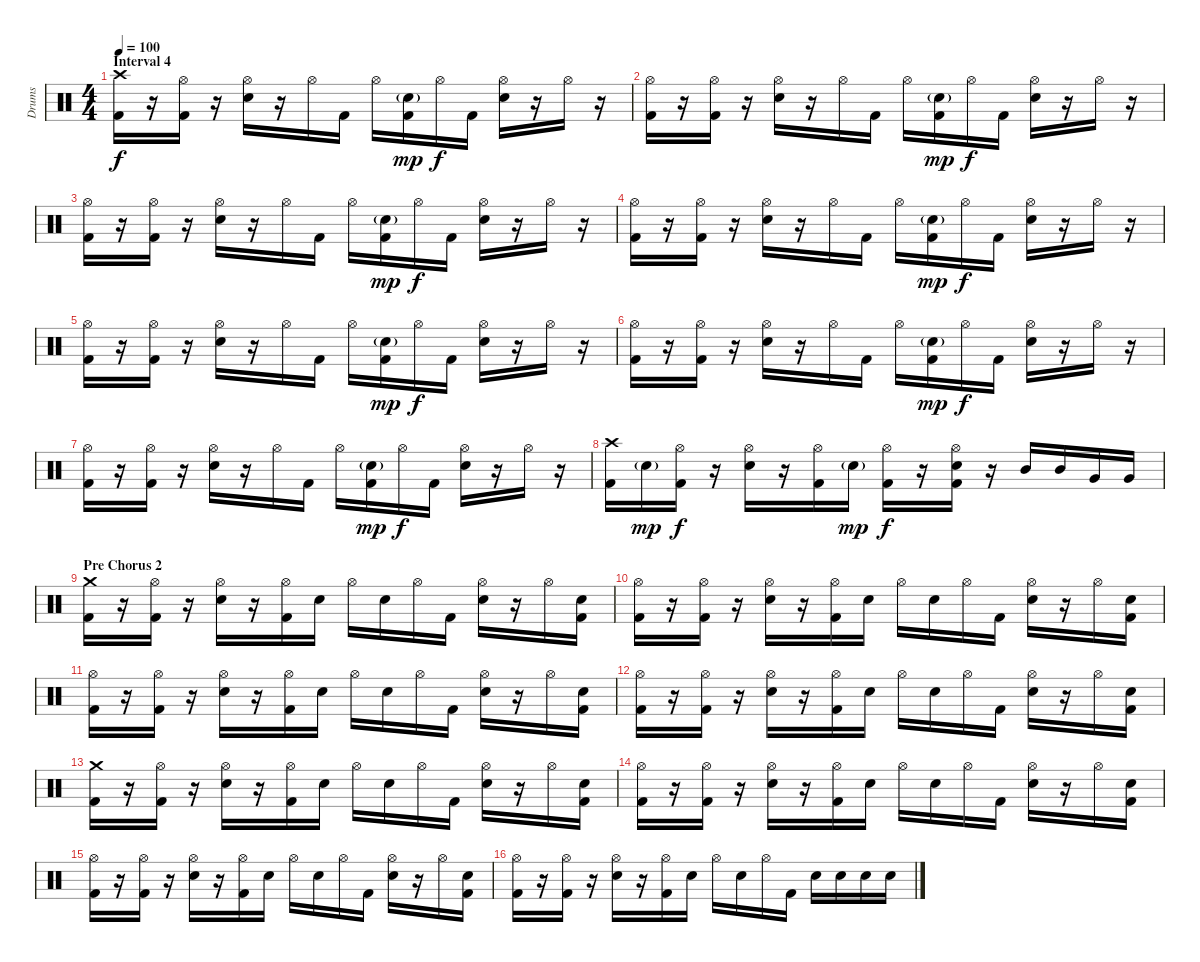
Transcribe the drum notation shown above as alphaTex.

\track ("Drums" "Drums") {instrument percussion}
\staff {score}
\articulation defaults
\ts (4 4)
\section ("" "Interval 4")
\tempo 100
\clef neutral
\ks c
("Crash high (hit)" "Kick (hit) 2").16{dy f} r.16 ("Hi-Hat (open)" "Kick (hit) 2").16 r.16 ("Hi-Hat (open)" "Snare (hit) 2").16 r.16 "Hi-Hat (open)".16 "Kick (hit) 2".16 "Hi-Hat (open)".16 ("Snare (hit) 2"{g} "Kick (hit) 2").16{dy mp} "Hi-Hat (open)".16{dy f} "Kick (hit) 2".16 ("Hi-Hat (open)" "Snare (hit) 2").16 r.16 "Hi-Hat (open)".16 r.16 |
("Hi-Hat (open)" "Kick (hit) 2").16 r.16 ("Hi-Hat (open)" "Kick (hit) 2").16 r.16 ("Hi-Hat (open)" "Snare (hit) 2").16 r.16 "Hi-Hat (open)".16 "Kick (hit) 2".16 "Hi-Hat (open)".16 ("Snare (hit) 2"{g} "Kick (hit) 2").16{dy mp} "Hi-Hat (open)".16{dy f} "Kick (hit) 2".16 ("Hi-Hat (open)" "Snare (hit) 2").16 r.16 "Hi-Hat (open)".16 r.16 |
("Hi-Hat (open)" "Kick (hit) 2").16 r.16 ("Hi-Hat (open)" "Kick (hit) 2").16 r.16 ("Hi-Hat (open)" "Snare (hit) 2").16 r.16 "Hi-Hat (open)".16 "Kick (hit) 2".16 "Hi-Hat (open)".16 ("Snare (hit) 2"{g} "Kick (hit) 2").16{dy mp} "Hi-Hat (open)".16{dy f} "Kick (hit) 2".16 ("Hi-Hat (open)" "Snare (hit) 2").16 r.16 "Hi-Hat (open)".16 r.16 |
("Hi-Hat (open)" "Kick (hit) 2").16 r.16 ("Hi-Hat (open)" "Kick (hit) 2").16 r.16 ("Hi-Hat (open)" "Snare (hit) 2").16 r.16 "Hi-Hat (open)".16 "Kick (hit) 2".16 "Hi-Hat (open)".16 ("Snare (hit) 2"{g} "Kick (hit) 2").16{dy mp} "Hi-Hat (open)".16{dy f} "Kick (hit) 2".16 ("Hi-Hat (open)" "Snare (hit) 2").16 r.16 "Hi-Hat (open)".16 r.16 |
("Hi-Hat (open)" "Kick (hit) 2").16 r.16 ("Hi-Hat (open)" "Kick (hit) 2").16 r.16 ("Hi-Hat (open)" "Snare (hit) 2").16 r.16 "Hi-Hat (open)".16 "Kick (hit) 2".16 "Hi-Hat (open)".16 ("Snare (hit) 2"{g} "Kick (hit) 2").16{dy mp} "Hi-Hat (open)".16{dy f} "Kick (hit) 2".16 ("Hi-Hat (open)" "Snare (hit) 2").16 r.16 "Hi-Hat (open)".16 r.16 |
("Hi-Hat (open)" "Kick (hit) 2").16 r.16 ("Hi-Hat (open)" "Kick (hit) 2").16 r.16 ("Hi-Hat (open)" "Snare (hit) 2").16 r.16 "Hi-Hat (open)".16 "Kick (hit) 2".16 "Hi-Hat (open)".16 ("Snare (hit) 2"{g} "Kick (hit) 2").16{dy mp} "Hi-Hat (open)".16{dy f} "Kick (hit) 2".16 ("Hi-Hat (open)" "Snare (hit) 2").16 r.16 "Hi-Hat (open)".16 r.16 |
("Hi-Hat (open)" "Kick (hit) 2").16 r.16 ("Hi-Hat (open)" "Kick (hit) 2").16 r.16 ("Hi-Hat (open)" "Snare (hit) 2").16 r.16 "Hi-Hat (open)".16 "Kick (hit) 2".16 "Hi-Hat (open)".16 ("Snare (hit) 2"{g} "Kick (hit) 2").16{dy mp} "Hi-Hat (open)".16{dy f} "Kick (hit) 2".16 ("Hi-Hat (open)" "Snare (hit) 2").16 r.16 "Hi-Hat (open)".16 r.16 |
("Crash high (hit)" "Kick (hit) 2").16 "Snare (hit) 2"{g}.16{dy mp} ("Hi-Hat (open)" "Kick (hit) 2").16{dy f} r.16 ("Hi-Hat (open)" "Snare (hit) 2").16 r.16 ("Hi-Hat (open)" "Kick (hit) 2").16 "Snare (hit) 2"{g}.16{dy mp} ("Hi-Hat (open)" "Kick (hit) 2").16{dy f} r.16 ("Hi-Hat (open)" "Snare (hit) 2" "Kick (hit) 2").16 r.16 "Mid Tom (hit)".16 "Mid Tom (hit)".16 "Very Low Tom (hit)".16 "Very Low Tom (hit)".16 |
\section ("" "Pre Chorus 2")
("Crash medium (hit)" "Kick (hit) 2").16 r.16 ("Hi-Hat (open)" "Kick (hit) 2").16 r.16 ("Hi-Hat (open)" "Snare (hit) 2").16 r.16 ("Hi-Hat (open)" "Kick (hit) 2").16 "Snare (hit) 2".16 "Hi-Hat (open)".16 "Snare (hit) 2".16 "Hi-Hat (open)".16 "Kick (hit) 2".16 ("Hi-Hat (open)" "Snare (hit) 2").16 r.16 "Hi-Hat (open)".16 ("Snare (hit) 2" "Kick (hit) 2").16 |
("Hi-Hat (open)" "Kick (hit) 2").16 r.16 ("Hi-Hat (open)" "Kick (hit) 2").16 r.16 ("Hi-Hat (open)" "Snare (hit) 2").16 r.16 ("Hi-Hat (open)" "Kick (hit) 2").16 "Snare (hit) 2".16 "Hi-Hat (open)".16 "Snare (hit) 2".16 "Hi-Hat (open)".16 "Kick (hit) 2".16 ("Hi-Hat (open)" "Snare (hit) 2").16 r.16 "Hi-Hat (open)".16 ("Snare (hit) 2" "Kick (hit) 2").16 |
("Hi-Hat (open)" "Kick (hit) 2").16 r.16 ("Hi-Hat (open)" "Kick (hit) 2").16 r.16 ("Hi-Hat (open)" "Snare (hit) 2").16 r.16 ("Hi-Hat (open)" "Kick (hit) 2").16 "Snare (hit) 2".16 "Hi-Hat (open)".16 "Snare (hit) 2".16 "Hi-Hat (open)".16 "Kick (hit) 2".16 ("Hi-Hat (open)" "Snare (hit) 2").16 r.16 "Hi-Hat (open)".16 ("Snare (hit) 2" "Kick (hit) 2").16 |
("Hi-Hat (open)" "Kick (hit) 2").16 r.16 ("Hi-Hat (open)" "Kick (hit) 2").16 r.16 ("Hi-Hat (open)" "Snare (hit) 2").16 r.16 ("Hi-Hat (open)" "Kick (hit) 2").16 "Snare (hit) 2".16 "Hi-Hat (open)".16 "Snare (hit) 2".16 "Hi-Hat (open)".16 "Kick (hit) 2".16 ("Hi-Hat (open)" "Snare (hit) 2").16 r.16 "Hi-Hat (open)".16 ("Snare (hit) 2" "Kick (hit) 2").16 |
("Crash medium (hit)" "Kick (hit) 2").16 r.16 ("Hi-Hat (open)" "Kick (hit) 2").16 r.16 ("Hi-Hat (open)" "Snare (hit) 2").16 r.16 ("Hi-Hat (open)" "Kick (hit) 2").16 "Snare (hit) 2".16 "Hi-Hat (open)".16 "Snare (hit) 2".16 "Hi-Hat (open)".16 "Kick (hit) 2".16 ("Hi-Hat (open)" "Snare (hit) 2").16 r.16 "Hi-Hat (open)".16 ("Snare (hit) 2" "Kick (hit) 2").16 |
("Hi-Hat (open)" "Kick (hit) 2").16 r.16 ("Hi-Hat (open)" "Kick (hit) 2").16 r.16 ("Hi-Hat (open)" "Snare (hit) 2").16 r.16 ("Hi-Hat (open)" "Kick (hit) 2").16 "Snare (hit) 2".16 "Hi-Hat (open)".16 "Snare (hit) 2".16 "Hi-Hat (open)".16 "Kick (hit) 2".16 ("Hi-Hat (open)" "Snare (hit) 2").16 r.16 "Hi-Hat (open)".16 ("Snare (hit) 2" "Kick (hit) 2").16 |
("Hi-Hat (open)" "Kick (hit) 2").16 r.16 ("Hi-Hat (open)" "Kick (hit) 2").16 r.16 ("Hi-Hat (open)" "Snare (hit) 2").16 r.16 ("Hi-Hat (open)" "Kick (hit) 2").16 "Snare (hit) 2".16 "Hi-Hat (open)".16 "Snare (hit) 2".16 "Hi-Hat (open)".16 "Kick (hit) 2".16 ("Hi-Hat (open)" "Snare (hit) 2").16 r.16 "Hi-Hat (open)".16 ("Snare (hit) 2" "Kick (hit) 2").16 |
("Hi-Hat (open)" "Kick (hit) 2").16 r.16 ("Hi-Hat (open)" "Kick (hit) 2").16 r.16 ("Hi-Hat (open)" "Snare (hit) 2").16 r.16 ("Hi-Hat (open)" "Kick (hit) 2").16 "Snare (hit) 2".16 "Hi-Hat (open)".16 "Snare (hit) 2".16 "Hi-Hat (open)".16 "Kick (hit) 2".16 "Snare (hit) 2".16 "Snare (hit) 2".16 "Snare (hit) 2".16 "Snare (hit) 2".16
